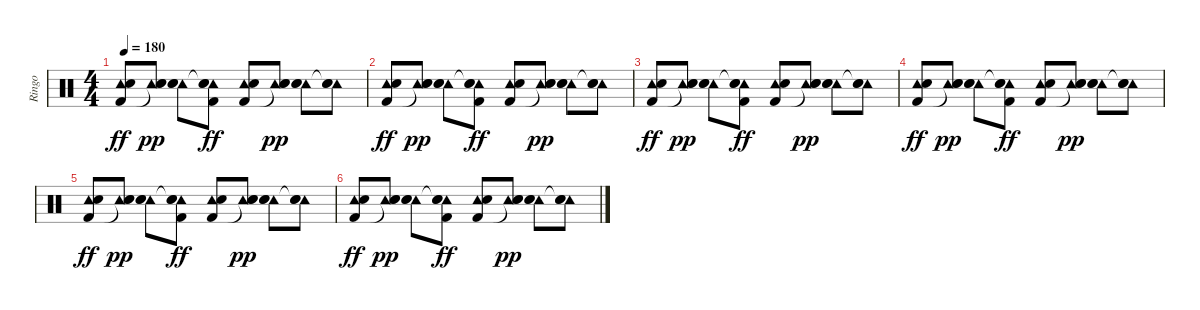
\track ("Ringo" "Ringo") {instrument percussion}
\staff {score}
\articulation defaults
\ts (4 4)
\tempo 180
\clef neutral
\ks c
("Tambourine (hit)" "Hand Clap (hit)" "Kick (hit) 2").8{dy ff} ("Tambourine (hit)" "Hand Clap (hit)" "Snare (hit)"{t}).8{dy pp} ("Tambourine (hit)" "Hand Clap (hit)" "Snare (hit) 2").8 ("Tambourine (hit)" "Hand Clap (hit)" "Snare (hit)"{t} "Kick (hit) 2").8{dy ff} ("Tambourine (hit)" "Hand Clap (hit)" "Kick (hit) 2").8 ("Tambourine (hit)" "Hand Clap (hit)" "Snare (hit)"{t}).8{dy pp} ("Tambourine (hit)" "Hand Clap (hit)" "Snare (hit) 2").8 ("Tambourine (hit)" "Hand Clap (hit)" "Snare (hit)"{t}).8 |
("Tambourine (hit)" "Hand Clap (hit)" "Kick (hit) 2").8{dy ff volume 10} ("Tambourine (hit)" "Hand Clap (hit)" "Snare (hit)"{t}).8{dy pp} ("Tambourine (hit)" "Hand Clap (hit)" "Snare (hit) 2").8 ("Tambourine (hit)" "Hand Clap (hit)" "Snare (hit)"{t} "Kick (hit) 2").8{dy ff} ("Tambourine (hit)" "Hand Clap (hit)" "Kick (hit) 2").8 ("Tambourine (hit)" "Hand Clap (hit)" "Snare (hit)"{t}).8{dy pp} ("Tambourine (hit)" "Hand Clap (hit)" "Snare (hit) 2").8 ("Tambourine (hit)" "Hand Clap (hit)" "Snare (hit)"{t}).8 |
("Tambourine (hit)" "Hand Clap (hit)" "Kick (hit) 2").8{dy ff volume 8} ("Tambourine (hit)" "Hand Clap (hit)" "Snare (hit)"{t}).8{dy pp} ("Tambourine (hit)" "Hand Clap (hit)" "Snare (hit) 2").8 ("Tambourine (hit)" "Hand Clap (hit)" "Snare (hit)"{t} "Kick (hit) 2").8{dy ff} ("Tambourine (hit)" "Hand Clap (hit)" "Kick (hit) 2").8 ("Tambourine (hit)" "Hand Clap (hit)" "Snare (hit)"{t}).8{dy pp} ("Tambourine (hit)" "Hand Clap (hit)" "Snare (hit) 2").8 ("Tambourine (hit)" "Hand Clap (hit)" "Snare (hit)"{t}).8 |
("Tambourine (hit)" "Hand Clap (hit)" "Kick (hit) 2").8{dy ff volume 6} ("Tambourine (hit)" "Hand Clap (hit)" "Snare (hit)"{t}).8{dy pp} ("Tambourine (hit)" "Hand Clap (hit)" "Snare (hit) 2").8 ("Tambourine (hit)" "Hand Clap (hit)" "Snare (hit)"{t} "Kick (hit) 2").8{dy ff} ("Tambourine (hit)" "Hand Clap (hit)" "Kick (hit) 2").8 ("Tambourine (hit)" "Hand Clap (hit)" "Snare (hit)"{t}).8{dy pp} ("Tambourine (hit)" "Hand Clap (hit)" "Snare (hit) 2").8 ("Tambourine (hit)" "Hand Clap (hit)" "Snare (hit)"{t}).8 |
("Tambourine (hit)" "Hand Clap (hit)" "Kick (hit) 2").8{dy ff volume 4} ("Tambourine (hit)" "Hand Clap (hit)" "Snare (hit)"{t}).8{dy pp} ("Tambourine (hit)" "Hand Clap (hit)" "Snare (hit) 2").8 ("Tambourine (hit)" "Hand Clap (hit)" "Snare (hit)"{t} "Kick (hit) 2").8{dy ff} ("Tambourine (hit)" "Hand Clap (hit)" "Kick (hit) 2").8 ("Tambourine (hit)" "Hand Clap (hit)" "Snare (hit)"{t}).8{dy pp} ("Tambourine (hit)" "Hand Clap (hit)" "Snare (hit) 2").8 ("Tambourine (hit)" "Hand Clap (hit)" "Snare (hit)"{t}).8 |
("Tambourine (hit)" "Hand Clap (hit)" "Kick (hit) 2").8{dy ff volume 2} ("Tambourine (hit)" "Hand Clap (hit)" "Snare (hit)"{t}).8{dy pp} ("Tambourine (hit)" "Hand Clap (hit)" "Snare (hit) 2").8 ("Tambourine (hit)" "Hand Clap (hit)" "Snare (hit)"{t} "Kick (hit) 2").8{dy ff} ("Tambourine (hit)" "Hand Clap (hit)" "Kick (hit) 2").8 ("Tambourine (hit)" "Hand Clap (hit)" "Snare (hit)"{t}).8{dy pp} ("Tambourine (hit)" "Hand Clap (hit)" "Snare (hit) 2").8 ("Tambourine (hit)" "Hand Clap (hit)" "Snare (hit)"{t}).8
